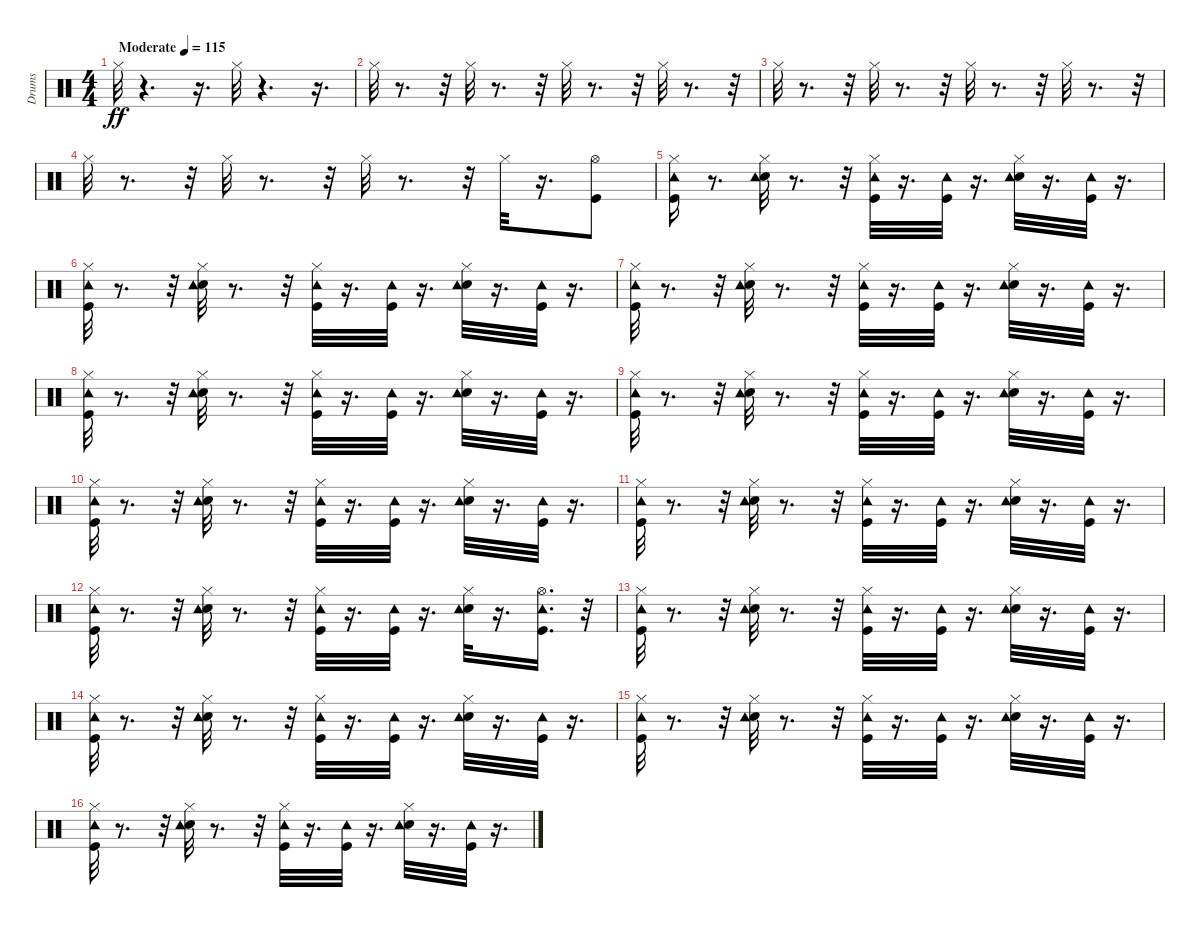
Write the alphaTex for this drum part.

\track ("Drums" "Drums") {instrument percussion}
\staff {score}
\articulation defaults
\ts (4 4)
\tempo (115 "Moderate")
\clef neutral
\ks c "Hi-Hat (closed)".32{dy ff}
r.4{d} r.16{d} "Hi-Hat (closed)".32 r.4{d} r.16{d} |
"Hi-Hat (closed)".32 r.8{d} r.32 "Hi-Hat (closed)".32 r.8{d} r.32 "Hi-Hat (closed)".32 r.8{d} r.32 "Hi-Hat (closed)".32 r.8{d} r.32 |
"Hi-Hat (closed)".32 r.8{d} r.32 "Hi-Hat (closed)".32 r.8{d} r.32 "Hi-Hat (closed)".32 r.8{d} r.32 "Hi-Hat (closed)".32 r.8{d} r.32 |
"Hi-Hat (closed)".32 r.8{d} r.32 "Hi-Hat (closed)".32 r.8{d} r.32 "Hi-Hat (closed)".32 r.8{d} r.32 "Hi-Hat (closed)".32 r.16{d} ("Hi-Hat (open)" "Kick (hit)").8 |
("Hi-Hat (closed)" "Kick (hit)" "Tambourine (hit)").16 r.8{d} ("Hi-Hat (closed)" "Snare (hit) 2" "Tambourine (hit)").32 r.8{d} r.32 ("Hi-Hat (closed)" "Kick (hit)" "Tambourine (hit)").32 r.16{d} ("Kick (hit)" "Tambourine (hit)").32 r.16{d} ("Hi-Hat (closed)" "Snare (hit) 2" "Tambourine (hit)").32 r.16{d} ("Kick (hit)" "Tambourine (hit)").32 r.16{d} |
("Hi-Hat (closed)" "Kick (hit)" "Tambourine (hit)").32 r.8{d} r.32 ("Hi-Hat (closed)" "Snare (hit) 2" "Tambourine (hit)").32 r.8{d} r.32 ("Hi-Hat (closed)" "Kick (hit)" "Tambourine (hit)").32 r.16{d} ("Kick (hit)" "Tambourine (hit)").32 r.16{d} ("Hi-Hat (closed)" "Snare (hit) 2" "Tambourine (hit)").32 r.16{d} ("Kick (hit)" "Tambourine (hit)").32 r.16{d} |
("Hi-Hat (closed)" "Kick (hit)" "Tambourine (hit)").32 r.8{d} r.32 ("Hi-Hat (closed)" "Snare (hit) 2" "Tambourine (hit)").32 r.8{d} r.32 ("Hi-Hat (closed)" "Kick (hit)" "Tambourine (hit)").32 r.16{d} ("Kick (hit)" "Tambourine (hit)").32 r.16{d} ("Hi-Hat (closed)" "Snare (hit) 2" "Tambourine (hit)").32 r.16{d} ("Kick (hit)" "Tambourine (hit)").32 r.16{d} |
("Hi-Hat (closed)" "Kick (hit)" "Tambourine (hit)").32 r.8{d} r.32 ("Hi-Hat (closed)" "Snare (hit) 2" "Tambourine (hit)").32 r.8{d} r.32 ("Hi-Hat (closed)" "Kick (hit)" "Tambourine (hit)").32 r.16{d} ("Kick (hit)" "Tambourine (hit)").32 r.16{d} ("Hi-Hat (closed)" "Snare (hit) 2" "Tambourine (hit)").32 r.16{d} ("Kick (hit)" "Tambourine (hit)").32 r.16{d} |
("Hi-Hat (closed)" "Kick (hit)" "Tambourine (hit)").32 r.8{d} r.32 ("Hi-Hat (closed)" "Snare (hit) 2" "Tambourine (hit)").32 r.8{d} r.32 ("Hi-Hat (closed)" "Kick (hit)" "Tambourine (hit)").32 r.16{d} ("Kick (hit)" "Tambourine (hit)").32 r.16{d} ("Hi-Hat (closed)" "Snare (hit) 2" "Tambourine (hit)").32 r.16{d} ("Kick (hit)" "Tambourine (hit)").32 r.16{d} |
("Hi-Hat (closed)" "Kick (hit)" "Tambourine (hit)").32 r.8{d} r.32 ("Hi-Hat (closed)" "Snare (hit) 2" "Tambourine (hit)").32 r.8{d} r.32 ("Hi-Hat (closed)" "Kick (hit)" "Tambourine (hit)").32 r.16{d} ("Kick (hit)" "Tambourine (hit)").32 r.16{d} ("Hi-Hat (closed)" "Snare (hit) 2" "Tambourine (hit)").32 r.16{d} ("Kick (hit)" "Tambourine (hit)").32 r.16{d} |
("Hi-Hat (closed)" "Kick (hit)" "Tambourine (hit)").32 r.8{d} r.32 ("Hi-Hat (closed)" "Snare (hit) 2" "Tambourine (hit)").32 r.8{d} r.32 ("Hi-Hat (closed)" "Kick (hit)" "Tambourine (hit)").32 r.16{d} ("Kick (hit)" "Tambourine (hit)").32 r.16{d} ("Hi-Hat (closed)" "Snare (hit) 2" "Tambourine (hit)").32 r.16{d} ("Kick (hit)" "Tambourine (hit)").32 r.16{d} |
("Hi-Hat (closed)" "Kick (hit)" "Tambourine (hit)").32 r.8{d} r.32 ("Hi-Hat (closed)" "Snare (hit) 2" "Tambourine (hit)").32 r.8{d} r.32 ("Hi-Hat (closed)" "Kick (hit)" "Tambourine (hit)").32 r.16{d} ("Kick (hit)" "Tambourine (hit)").32 r.16{d} ("Hi-Hat (closed)" "Snare (hit) 2" "Tambourine (hit)").32 r.16{d} ("Kick (hit)" "Hi-Hat (open)" "Tambourine (hit)").16{d} r.32 |
("Hi-Hat (closed)" "Kick (hit)" "Tambourine (hit)").32 r.8{d} r.32 ("Hi-Hat (closed)" "Snare (hit) 2" "Tambourine (hit)").32 r.8{d} r.32 ("Hi-Hat (closed)" "Kick (hit)" "Tambourine (hit)").32 r.16{d} ("Kick (hit)" "Tambourine (hit)").32 r.16{d} ("Hi-Hat (closed)" "Snare (hit) 2" "Tambourine (hit)").32 r.16{d} ("Kick (hit)" "Tambourine (hit)").32 r.16{d} |
("Hi-Hat (closed)" "Kick (hit)" "Tambourine (hit)").32 r.8{d} r.32 ("Hi-Hat (closed)" "Snare (hit) 2" "Tambourine (hit)").32 r.8{d} r.32 ("Hi-Hat (closed)" "Kick (hit)" "Tambourine (hit)").32 r.16{d} ("Kick (hit)" "Tambourine (hit)").32 r.16{d} ("Hi-Hat (closed)" "Snare (hit) 2" "Tambourine (hit)").32 r.16{d} ("Kick (hit)" "Tambourine (hit)").32 r.16{d} |
("Hi-Hat (closed)" "Kick (hit)" "Tambourine (hit)").32 r.8{d} r.32 ("Hi-Hat (closed)" "Snare (hit) 2" "Tambourine (hit)").32 r.8{d} r.32 ("Hi-Hat (closed)" "Kick (hit)" "Tambourine (hit)").32 r.16{d} ("Kick (hit)" "Tambourine (hit)").32 r.16{d} ("Hi-Hat (closed)" "Snare (hit) 2" "Tambourine (hit)").32 r.16{d} ("Kick (hit)" "Tambourine (hit)").32 r.16{d} |
("Hi-Hat (closed)" "Kick (hit)" "Tambourine (hit)").32 r.8{d} r.32 ("Hi-Hat (closed)" "Snare (hit) 2" "Tambourine (hit)").32 r.8{d} r.32 ("Hi-Hat (closed)" "Kick (hit)" "Tambourine (hit)").32 r.16{d} ("Kick (hit)" "Tambourine (hit)").32 r.16{d} ("Hi-Hat (closed)" "Snare (hit) 2" "Tambourine (hit)").32 r.16{d} ("Kick (hit)" "Tambourine (hit)").32 r.16{d}
